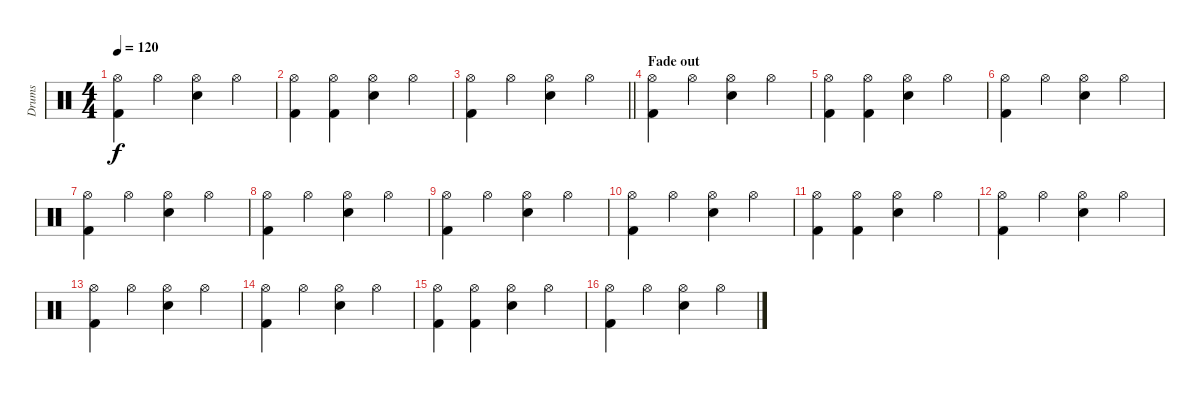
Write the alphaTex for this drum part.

\track ("Drums" "Drums") {instrument percussion}
\staff {score}
\articulation defaults
\ts (4 4)
\tempo 120
\clef neutral
\ks c
("Hi-Hat (open)" "Kick (hit) 2").4{dy f} "Hi-Hat (open)".4 ("Hi-Hat (open)" "Snare (hit) 2").4 "Hi-Hat (open)".4 |
("Hi-Hat (open)" "Kick (hit) 2").4 ("Hi-Hat (open)" "Kick (hit) 2").4 ("Hi-Hat (open)" "Snare (hit) 2").4 "Hi-Hat (open)".4 |
\barLineRight lightlight
("Hi-Hat (open)" "Kick (hit) 2").4 "Hi-Hat (open)".4 ("Hi-Hat (open)" "Snare (hit) 2").4 "Hi-Hat (open)".4 |
\section ("" "Fade out")
("Hi-Hat (open)" "Kick (hit) 2").4 "Hi-Hat (open)".4 ("Hi-Hat (open)" "Snare (hit) 2").4 "Hi-Hat (open)".4 |
("Hi-Hat (open)" "Kick (hit) 2").4 ("Hi-Hat (open)" "Kick (hit) 2").4 ("Hi-Hat (open)" "Snare (hit) 2").4 "Hi-Hat (open)".4 |
("Hi-Hat (open)" "Kick (hit) 2").4 "Hi-Hat (open)".4 ("Hi-Hat (open)" "Snare (hit) 2").4 "Hi-Hat (open)".4 |
("Hi-Hat (open)" "Kick (hit) 2").4 "Hi-Hat (open)".4 ("Hi-Hat (open)" "Snare (hit) 2").4 "Hi-Hat (open)".4 |
("Hi-Hat (open)" "Kick (hit) 2").4 "Hi-Hat (open)".4 ("Hi-Hat (open)" "Snare (hit) 2").4 "Hi-Hat (open)".4 |
("Hi-Hat (open)" "Kick (hit) 2").4 "Hi-Hat (open)".4 ("Hi-Hat (open)" "Snare (hit) 2").4 "Hi-Hat (open)".4 |
("Hi-Hat (open)" "Kick (hit) 2").4 "Hi-Hat (open)".4 ("Hi-Hat (open)" "Snare (hit) 2").4 "Hi-Hat (open)".4 |
("Hi-Hat (open)" "Kick (hit) 2").4 ("Hi-Hat (open)" "Kick (hit) 2").4 ("Hi-Hat (open)" "Snare (hit) 2").4 "Hi-Hat (open)".4 |
("Hi-Hat (open)" "Kick (hit) 2").4 "Hi-Hat (open)".4 ("Hi-Hat (open)" "Snare (hit) 2").4 "Hi-Hat (open)".4 |
("Hi-Hat (open)" "Kick (hit) 2").4 "Hi-Hat (open)".4 ("Hi-Hat (open)" "Snare (hit) 2").4 "Hi-Hat (open)".4 |
("Hi-Hat (open)" "Kick (hit) 2").4 "Hi-Hat (open)".4 ("Hi-Hat (open)" "Snare (hit) 2").4 "Hi-Hat (open)".4 |
("Hi-Hat (open)" "Kick (hit) 2").4 ("Hi-Hat (open)" "Kick (hit) 2").4 ("Hi-Hat (open)" "Snare (hit) 2").4 "Hi-Hat (open)".4 |
("Hi-Hat (open)" "Kick (hit) 2").4 "Hi-Hat (open)".4 ("Hi-Hat (open)" "Snare (hit) 2").4 "Hi-Hat (open)".4
